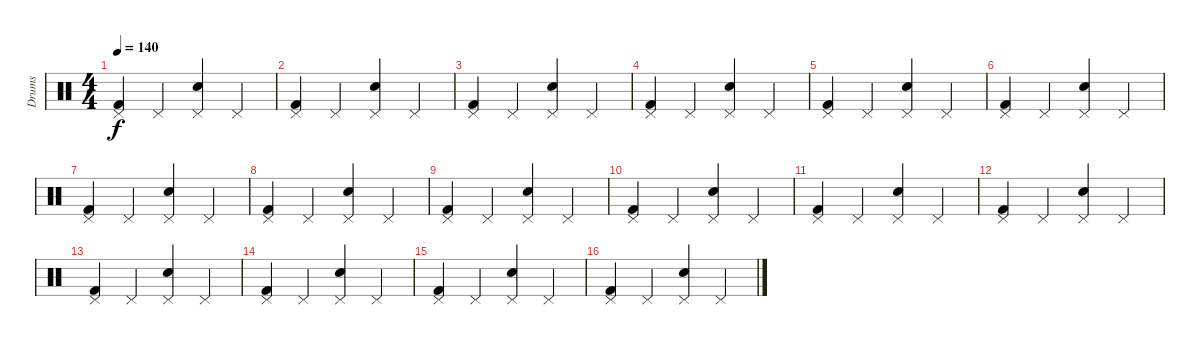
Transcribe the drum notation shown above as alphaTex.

\track ("Drums" "Drums") {instrument percussion}
\staff {score}
\articulation defaults
\ts (4 4)
\tempo 140
\clef neutral
\ks c
("Kick (hit) 2" "Pedal Hi-Hat (hit)").4{dy f} "Pedal Hi-Hat (hit)".4 ("Electric Snare (hit)" "Pedal Hi-Hat (hit)").4 "Pedal Hi-Hat (hit)".4 |
("Kick (hit) 2" "Pedal Hi-Hat (hit)").4 "Pedal Hi-Hat (hit)".4 ("Electric Snare (hit)" "Pedal Hi-Hat (hit)").4 "Pedal Hi-Hat (hit)".4 |
("Kick (hit) 2" "Pedal Hi-Hat (hit)").4 "Pedal Hi-Hat (hit)".4 ("Electric Snare (hit)" "Pedal Hi-Hat (hit)").4 "Pedal Hi-Hat (hit)".4 |
("Kick (hit) 2" "Pedal Hi-Hat (hit)").4 "Pedal Hi-Hat (hit)".4 ("Electric Snare (hit)" "Pedal Hi-Hat (hit)").4 "Pedal Hi-Hat (hit)".4 |
("Kick (hit) 2" "Pedal Hi-Hat (hit)").4 "Pedal Hi-Hat (hit)".4 ("Electric Snare (hit)" "Pedal Hi-Hat (hit)").4 "Pedal Hi-Hat (hit)".4 |
("Kick (hit) 2" "Pedal Hi-Hat (hit)").4 "Pedal Hi-Hat (hit)".4 ("Electric Snare (hit)" "Pedal Hi-Hat (hit)").4 "Pedal Hi-Hat (hit)".4 |
("Kick (hit) 2" "Pedal Hi-Hat (hit)").4 "Pedal Hi-Hat (hit)".4 ("Electric Snare (hit)" "Pedal Hi-Hat (hit)").4 "Pedal Hi-Hat (hit)".4 |
("Kick (hit) 2" "Pedal Hi-Hat (hit)").4 "Pedal Hi-Hat (hit)".4 ("Electric Snare (hit)" "Pedal Hi-Hat (hit)").4 "Pedal Hi-Hat (hit)".4 |
("Kick (hit) 2" "Pedal Hi-Hat (hit)").4 "Pedal Hi-Hat (hit)".4 ("Electric Snare (hit)" "Pedal Hi-Hat (hit)").4 "Pedal Hi-Hat (hit)".4 |
("Kick (hit) 2" "Pedal Hi-Hat (hit)").4 "Pedal Hi-Hat (hit)".4 ("Electric Snare (hit)" "Pedal Hi-Hat (hit)").4 "Pedal Hi-Hat (hit)".4 |
("Kick (hit) 2" "Pedal Hi-Hat (hit)").4 "Pedal Hi-Hat (hit)".4 ("Electric Snare (hit)" "Pedal Hi-Hat (hit)").4 "Pedal Hi-Hat (hit)".4 |
("Kick (hit) 2" "Pedal Hi-Hat (hit)").4 "Pedal Hi-Hat (hit)".4 ("Electric Snare (hit)" "Pedal Hi-Hat (hit)").4 "Pedal Hi-Hat (hit)".4 |
("Kick (hit) 2" "Pedal Hi-Hat (hit)").4 "Pedal Hi-Hat (hit)".4 ("Electric Snare (hit)" "Pedal Hi-Hat (hit)").4 "Pedal Hi-Hat (hit)".4 |
("Kick (hit) 2" "Pedal Hi-Hat (hit)").4 "Pedal Hi-Hat (hit)".4 ("Electric Snare (hit)" "Pedal Hi-Hat (hit)").4 "Pedal Hi-Hat (hit)".4 |
("Kick (hit) 2" "Pedal Hi-Hat (hit)").4 "Pedal Hi-Hat (hit)".4 ("Electric Snare (hit)" "Pedal Hi-Hat (hit)").4 "Pedal Hi-Hat (hit)".4 |
("Kick (hit) 2" "Pedal Hi-Hat (hit)").4 "Pedal Hi-Hat (hit)".4 ("Electric Snare (hit)" "Pedal Hi-Hat (hit)").4 "Pedal Hi-Hat (hit)".4
